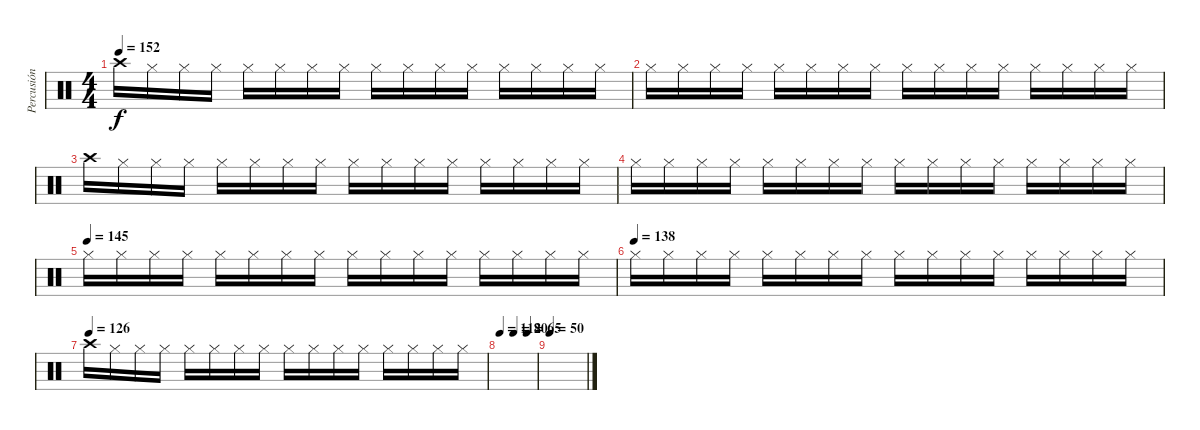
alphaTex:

\track ("Percusión" "Percusión") {instrument percussion}
\staff {score}
\articulation defaults
\ts (4 4)
\tempo 152
\clef neutral
\ks c "Crash high (hit)".16{dy f} "Hi-Hat (closed)".16 "Hi-Hat (closed)".16 "Hi-Hat (closed)".16 "Hi-Hat (closed)".16 "Hi-Hat (closed)".16 "Hi-Hat (closed)".16 "Hi-Hat (closed)".16 "Hi-Hat (closed)".16 "Hi-Hat (closed)".16 "Hi-Hat (closed)".16 "Hi-Hat (closed)".16 "Hi-Hat (closed)".16 "Hi-Hat (closed)".16 "Hi-Hat (closed)".16 "Hi-Hat (closed)".16
|
"Hi-Hat (closed)".16 "Hi-Hat (closed)".16 "Hi-Hat (closed)".16 "Hi-Hat (closed)".16 "Hi-Hat (closed)".16 "Hi-Hat (closed)".16 "Hi-Hat (closed)".16 "Hi-Hat (closed)".16 "Hi-Hat (closed)".16 "Hi-Hat (closed)".16 "Hi-Hat (closed)".16 "Hi-Hat (closed)".16 "Hi-Hat (closed)".16 "Hi-Hat (closed)".16 "Hi-Hat (closed)".16 "Hi-Hat (closed)".16 |
"Crash high (hit)".16 "Hi-Hat (closed)".16 "Hi-Hat (closed)".16 "Hi-Hat (closed)".16 "Hi-Hat (closed)".16 "Hi-Hat (closed)".16 "Hi-Hat (closed)".16 "Hi-Hat (closed)".16 "Hi-Hat (closed)".16 "Hi-Hat (closed)".16 "Hi-Hat (closed)".16 "Hi-Hat (closed)".16 "Hi-Hat (closed)".16 "Hi-Hat (closed)".16 "Hi-Hat (closed)".16 "Hi-Hat (closed)".16 |
"Hi-Hat (closed)".16 "Hi-Hat (closed)".16 "Hi-Hat (closed)".16 "Hi-Hat (closed)".16 "Hi-Hat (closed)".16 "Hi-Hat (closed)".16 "Hi-Hat (closed)".16 "Hi-Hat (closed)".16 "Hi-Hat (closed)".16 "Hi-Hat (closed)".16 "Hi-Hat (closed)".16 "Hi-Hat (closed)".16 "Hi-Hat (closed)".16 "Hi-Hat (closed)".16 "Hi-Hat (closed)".16 "Hi-Hat (closed)".16 |
\tempo (145)
"Hi-Hat (closed)".16 "Hi-Hat (closed)".16 "Hi-Hat (closed)".16 "Hi-Hat (closed)".16 "Hi-Hat (closed)".16 "Hi-Hat (closed)".16 "Hi-Hat (closed)".16 "Hi-Hat (closed)".16 "Hi-Hat (closed)".16 "Hi-Hat (closed)".16 "Hi-Hat (closed)".16 "Hi-Hat (closed)".16 "Hi-Hat (closed)".16 "Hi-Hat (closed)".16 "Hi-Hat (closed)".16 "Hi-Hat (closed)".16 |
\tempo (138)
"Hi-Hat (closed)".16 "Hi-Hat (closed)".16 "Hi-Hat (closed)".16 "Hi-Hat (closed)".16 "Hi-Hat (closed)".16 "Hi-Hat (closed)".16 "Hi-Hat (closed)".16 "Hi-Hat (closed)".16 "Hi-Hat (closed)".16 "Hi-Hat (closed)".16 "Hi-Hat (closed)".16 "Hi-Hat (closed)".16 "Hi-Hat (closed)".16 "Hi-Hat (closed)".16 "Hi-Hat (closed)".16 "Hi-Hat (closed)".16 |
\tempo (126)
"Crash high (hit)".16 "Hi-Hat (closed)".16 "Hi-Hat (closed)".16 "Hi-Hat (closed)".16 "Hi-Hat (closed)".16 "Hi-Hat (closed)".16 "Hi-Hat (closed)".16 "Hi-Hat (closed)".16 "Hi-Hat (closed)".16 "Hi-Hat (closed)".16 "Hi-Hat (closed)".16 "Hi-Hat (closed)".16 "Hi-Hat (closed)".16 "Hi-Hat (closed)".16 "Hi-Hat (closed)".16 "Hi-Hat (closed)".16 |
\tempo 112
\tempo (80 0.375)
\tempo (65 0.75)
|
\tempo 50
